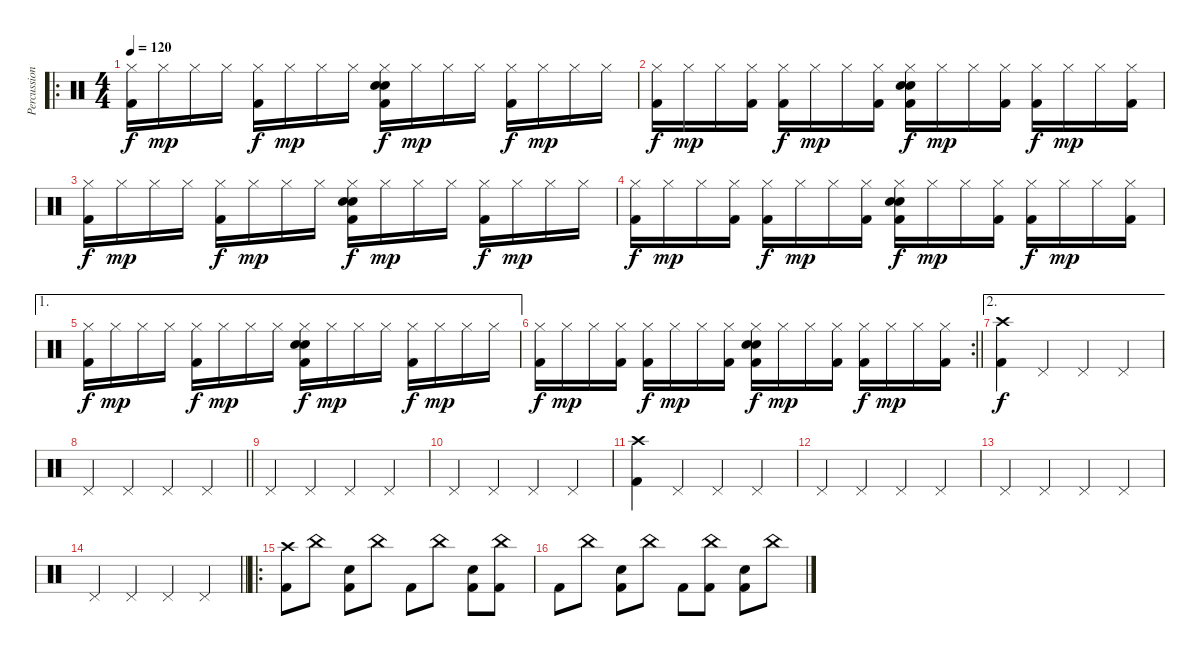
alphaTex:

\track ("Percussions" "Percussion") {instrument percussion}
\staff {score}
\articulation defaults
\ro
\ts (4 4)
\section ("" "")
\tempo 120
\clef neutral
\ks c
("Hi-Hat (closed)" "Kick (hit) 2").16{dy f} "Hi-Hat (closed)".16{dy mp} "Hi-Hat (closed)".16 "Hi-Hat (closed)".16 ("Hi-Hat (closed)" "Kick (hit) 2").16{dy f} "Hi-Hat (closed)".16{dy mp} "Hi-Hat (closed)".16 "Hi-Hat (closed)".16 ("Hi-Hat (closed)" "Electric Snare (hit)" "Hand Clap (hit)" "Kick (hit) 2").16{dy f} "Hi-Hat (closed)".16{dy mp} "Hi-Hat (closed)".16 "Hi-Hat (closed)".16 ("Hi-Hat (closed)" "Kick (hit) 2").16{dy f} "Hi-Hat (closed)".16{dy mp} "Hi-Hat (closed)".16 "Hi-Hat (closed)".16 |
("Hi-Hat (closed)" "Kick (hit) 2").16{dy f} "Hi-Hat (closed)".16{dy mp} "Hi-Hat (closed)".16 ("Hi-Hat (closed)" "Kick (hit) 2").16 ("Hi-Hat (closed)" "Kick (hit) 2").16{dy f} "Hi-Hat (closed)".16{dy mp} "Hi-Hat (closed)".16 ("Hi-Hat (closed)" "Kick (hit) 2").16 ("Hi-Hat (closed)" "Electric Snare (hit)" "Hand Clap (hit)" "Kick (hit) 2").16{dy f} "Hi-Hat (closed)".16{dy mp} "Hi-Hat (closed)".16 ("Hi-Hat (closed)" "Kick (hit) 2").16 ("Hi-Hat (closed)" "Kick (hit) 2").16{dy f} "Hi-Hat (closed)".16{dy mp} "Hi-Hat (closed)".16 ("Hi-Hat (closed)" "Kick (hit) 2").16 |
("Hi-Hat (closed)" "Kick (hit) 2").16{dy f} "Hi-Hat (closed)".16{dy mp} "Hi-Hat (closed)".16 "Hi-Hat (closed)".16 ("Hi-Hat (closed)" "Kick (hit) 2").16{dy f} "Hi-Hat (closed)".16{dy mp} "Hi-Hat (closed)".16 "Hi-Hat (closed)".16 ("Hi-Hat (closed)" "Electric Snare (hit)" "Hand Clap (hit)" "Kick (hit) 2").16{dy f} "Hi-Hat (closed)".16{dy mp} "Hi-Hat (closed)".16 "Hi-Hat (closed)".16 ("Hi-Hat (closed)" "Kick (hit) 2").16{dy f} "Hi-Hat (closed)".16{dy mp} "Hi-Hat (closed)".16 "Hi-Hat (closed)".16 |
("Hi-Hat (closed)" "Kick (hit) 2").16{dy f} "Hi-Hat (closed)".16{dy mp} "Hi-Hat (closed)".16 ("Hi-Hat (closed)" "Kick (hit) 2").16 ("Hi-Hat (closed)" "Kick (hit) 2").16{dy f} "Hi-Hat (closed)".16{dy mp} "Hi-Hat (closed)".16 ("Hi-Hat (closed)" "Kick (hit) 2").16 ("Hi-Hat (closed)" "Electric Snare (hit)" "Hand Clap (hit)" "Kick (hit) 2").16{dy f} "Hi-Hat (closed)".16{dy mp} "Hi-Hat (closed)".16 ("Hi-Hat (closed)" "Kick (hit) 2").16 ("Hi-Hat (closed)" "Kick (hit) 2").16{dy f} "Hi-Hat (closed)".16{dy mp} "Hi-Hat (closed)".16 ("Hi-Hat (closed)" "Kick (hit) 2").16 |
\ae 1
("Hi-Hat (closed)" "Kick (hit) 2").16{dy f} "Hi-Hat (closed)".16{dy mp} "Hi-Hat (closed)".16 "Hi-Hat (closed)".16 ("Hi-Hat (closed)" "Kick (hit) 2").16{dy f} "Hi-Hat (closed)".16{dy mp} "Hi-Hat (closed)".16 "Hi-Hat (closed)".16 ("Hi-Hat (closed)" "Electric Snare (hit)" "Hand Clap (hit)" "Kick (hit) 2").16{dy f} "Hi-Hat (closed)".16{dy mp} "Hi-Hat (closed)".16 "Hi-Hat (closed)".16 ("Hi-Hat (closed)" "Kick (hit) 2").16{dy f} "Hi-Hat (closed)".16{dy mp} "Hi-Hat (closed)".16 "Hi-Hat (closed)".16 |
\rc 2
\barLineRight lightlight
("Hi-Hat (closed)" "Kick (hit) 2").16{dy f} "Hi-Hat (closed)".16{dy mp} "Hi-Hat (closed)".16 ("Hi-Hat (closed)" "Kick (hit) 2").16 ("Hi-Hat (closed)" "Kick (hit) 2").16{dy f} "Hi-Hat (closed)".16{dy mp} "Hi-Hat (closed)".16 ("Hi-Hat (closed)" "Kick (hit) 2").16 ("Hi-Hat (closed)" "Electric Snare (hit)" "Hand Clap (hit)" "Kick (hit) 2").16{dy f} "Hi-Hat (closed)".16{dy mp} "Hi-Hat (closed)".16 ("Hi-Hat (closed)" "Kick (hit) 2").16 ("Hi-Hat (closed)" "Kick (hit) 2").16{dy f} "Hi-Hat (closed)".16{dy mp} "Hi-Hat (closed)".16 ("Hi-Hat (closed)" "Kick (hit) 2").16 |
\ae 2
\section ("" "")
("Crash high (hit)" "Kick (hit) 2").4{dy f} "Pedal Hi-Hat (hit)".4 "Pedal Hi-Hat (hit)".4 "Pedal Hi-Hat (hit)".4 |
\barLineRight lightlight "Pedal Hi-Hat (hit)".4 "Pedal Hi-Hat (hit)".4 "Pedal Hi-Hat (hit)".4 "Pedal Hi-Hat (hit)".4
|
"Pedal Hi-Hat (hit)".4 "Pedal Hi-Hat (hit)".4 "Pedal Hi-Hat (hit)".4 "Pedal Hi-Hat (hit)".4 |
"Pedal Hi-Hat (hit)".4 "Pedal Hi-Hat (hit)".4 "Pedal Hi-Hat (hit)".4 "Pedal Hi-Hat (hit)".4 |
("Crash high (hit)" "Kick (hit) 2").4 "Pedal Hi-Hat (hit)".4 "Pedal Hi-Hat (hit)".4 "Pedal Hi-Hat (hit)".4 |
"Pedal Hi-Hat (hit)".4 "Pedal Hi-Hat (hit)".4 "Pedal Hi-Hat (hit)".4 "Pedal Hi-Hat (hit)".4 |
"Pedal Hi-Hat (hit)".4 "Pedal Hi-Hat (hit)".4 "Pedal Hi-Hat (hit)".4 "Pedal Hi-Hat (hit)".4 |
\barLineRight lightlight "Pedal Hi-Hat (hit)".4 "Pedal Hi-Hat (hit)".4 "Pedal Hi-Hat (hit)".4 "Pedal Hi-Hat (hit)".4
|
\ro
\section ("" "")
("Crash high (hit)" "Kick (hit) 2").8 "China (hit)".8 ("Electric Snare (hit)" "Kick (hit) 2").8 "China (hit)".8 "Kick (hit) 2".8 "China (hit)".8 ("Electric Snare (hit)" "Kick (hit) 2").8 ("China (hit)" "Kick (hit) 2").8 |
"Kick (hit) 2".8 "China (hit)".8 ("Electric Snare (hit)" "Kick (hit) 2").8 "China (hit)".8 "Kick (hit) 2".8 ("China (hit)" "Kick (hit) 2").8 ("Electric Snare (hit)" "Kick (hit) 2").8 "China (hit)".8
